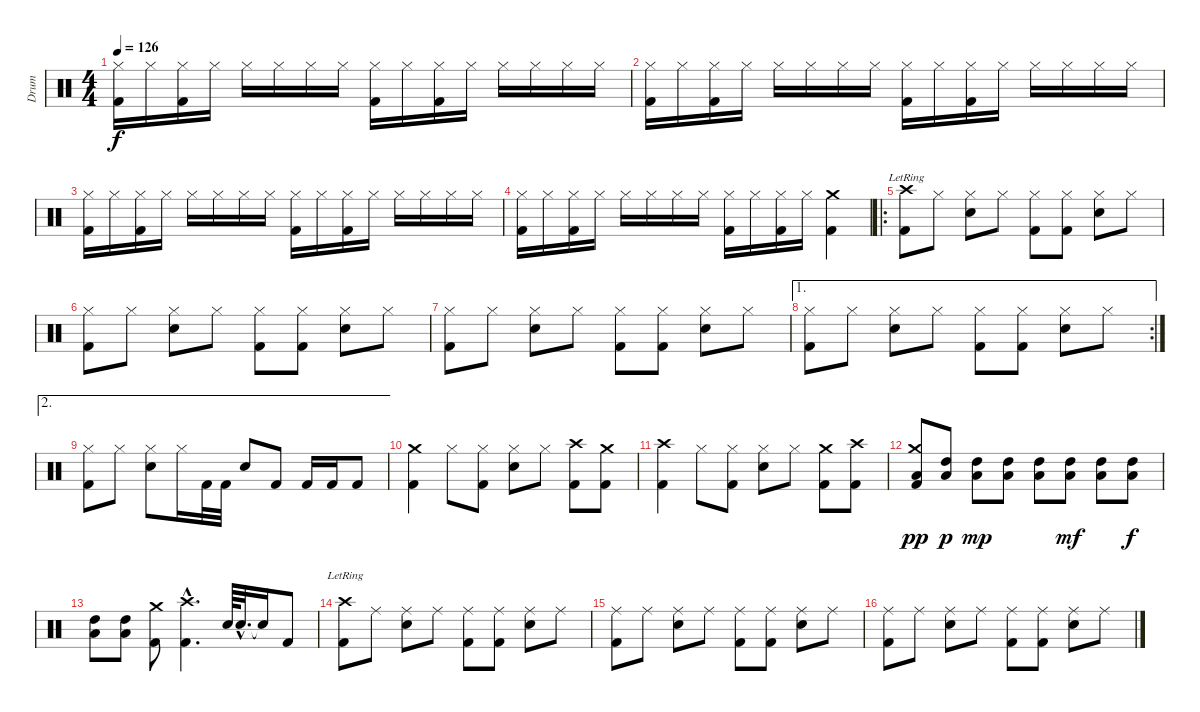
\track ("Drum" "Drum") {instrument percussion}
\staff {score}
\articulation defaults
\ts (4 4)
\tempo 126
\clef neutral
\ks c
("Hi-Hat (closed)" "Kick (hit) 2").16{dy f} "Hi-Hat (closed)".16 ("Hi-Hat (closed)" "Kick (hit) 2").16 "Hi-Hat (closed)".16 "Hi-Hat (closed)".16 "Hi-Hat (closed)".16 "Hi-Hat (closed)".16 "Hi-Hat (closed)".16 ("Hi-Hat (closed)" "Kick (hit) 2").16 "Hi-Hat (closed)".16 ("Hi-Hat (closed)" "Kick (hit) 2").16 "Hi-Hat (closed)".16 "Hi-Hat (closed)".16 "Hi-Hat (closed)".16 "Hi-Hat (closed)".16 "Hi-Hat (closed)".16 |
("Hi-Hat (closed)" "Kick (hit) 2").16 "Hi-Hat (closed)".16 ("Hi-Hat (closed)" "Kick (hit) 2").16 "Hi-Hat (closed)".16 "Hi-Hat (closed)".16 "Hi-Hat (closed)".16 "Hi-Hat (closed)".16 "Hi-Hat (closed)".16 ("Hi-Hat (closed)" "Kick (hit) 2").16 "Hi-Hat (closed)".16 ("Hi-Hat (closed)" "Kick (hit) 2").16 "Hi-Hat (closed)".16 "Hi-Hat (closed)".16 "Hi-Hat (closed)".16 "Hi-Hat (closed)".16 "Hi-Hat (closed)".16 |
("Hi-Hat (closed)" "Kick (hit) 2").16 "Hi-Hat (closed)".16 ("Hi-Hat (closed)" "Kick (hit) 2").16 "Hi-Hat (closed)".16 "Hi-Hat (closed)".16 "Hi-Hat (closed)".16 "Hi-Hat (closed)".16 "Hi-Hat (closed)".16 ("Hi-Hat (closed)" "Kick (hit) 2").16 "Hi-Hat (closed)".16 ("Hi-Hat (closed)" "Kick (hit) 2").16 "Hi-Hat (closed)".16 "Hi-Hat (closed)".16 "Hi-Hat (closed)".16 "Hi-Hat (closed)".16 "Hi-Hat (closed)".16 |
("Hi-Hat (closed)" "Kick (hit) 2").16 "Hi-Hat (closed)".16 ("Hi-Hat (closed)" "Kick (hit) 2").16 "Hi-Hat (closed)".16 "Hi-Hat (closed)".16 "Hi-Hat (closed)".16 "Hi-Hat (closed)".16 "Hi-Hat (closed)".16 ("Hi-Hat (closed)" "Kick (hit) 2").16 "Hi-Hat (closed)".16 ("Hi-Hat (closed)" "Kick (hit) 2").16 "Hi-Hat (closed)".16 ("Crash medium (hit)" "Kick (hit) 2").4 |
\ro
("Crash high (hit)"{lr} "Kick (hit) 2").8 "Hi-Hat (closed)".8 ("Hi-Hat (closed)" "Snare (hit) 2").8 "Hi-Hat (closed)".8 ("Hi-Hat (closed)" "Kick (hit) 2").8 ("Hi-Hat (closed)" "Kick (hit) 2").8 ("Hi-Hat (closed)" "Snare (hit) 2").8 "Hi-Hat (closed)".8 |
("Hi-Hat (closed)" "Kick (hit) 2").8 "Hi-Hat (closed)".8 ("Hi-Hat (closed)" "Snare (hit) 2").8 "Hi-Hat (closed)".8 ("Hi-Hat (closed)" "Kick (hit) 2").8 ("Hi-Hat (closed)" "Kick (hit) 2").8 ("Hi-Hat (closed)" "Snare (hit) 2").8 "Hi-Hat (closed)".8 |
("Hi-Hat (closed)" "Kick (hit) 2").8 "Hi-Hat (closed)".8 ("Hi-Hat (closed)" "Snare (hit) 2").8 "Hi-Hat (closed)".8 ("Hi-Hat (closed)" "Kick (hit) 2").8 ("Hi-Hat (closed)" "Kick (hit) 2").8 ("Hi-Hat (closed)" "Snare (hit) 2").8 "Hi-Hat (closed)".8 |
\ae 1
\rc 2
("Hi-Hat (closed)" "Kick (hit) 2").8 "Hi-Hat (closed)".8 ("Hi-Hat (closed)" "Snare (hit) 2").8 "Hi-Hat (closed)".8 ("Hi-Hat (closed)" "Kick (hit) 2").8 ("Hi-Hat (closed)" "Kick (hit) 2").8 ("Hi-Hat (closed)" "Snare (hit) 2").8 "Hi-Hat (closed)".8 |
\ae 2
("Hi-Hat (closed)" "Kick (hit) 2").8 "Hi-Hat (closed)".8 ("Hi-Hat (closed)" "Snare (hit) 2").8 "Hi-Hat (closed)".16 "Kick (hit) 2".32 "Kick (hit) 2".32 "Snare (hit) 2".8 "Kick (hit) 2".8 "Kick (hit) 2".16 "Kick (hit) 2".16 "Kick (hit) 2".8 |
("Crash medium (hit)" "Kick (hit) 2").4 "Hi-Hat (closed)".8 ("Hi-Hat (closed)" "Kick (hit) 2").8 ("Hi-Hat (closed)" "Snare (hit) 2").8 "Hi-Hat (closed)".8 ("Crash high (hit)" "Kick (hit) 2").8 ("Crash medium (hit)" "Kick (hit) 2").8 |
("Crash high (hit)" "Kick (hit) 2").4 "Hi-Hat (closed)".8 ("Hi-Hat (closed)" "Kick (hit) 2").8 ("Hi-Hat (closed)" "Snare (hit) 2").8 "Hi-Hat (closed)".8 ("Crash medium (hit)" "Kick (hit) 2").8 ("Crash high (hit)" "Kick (hit) 2").8 |
("Crash medium (hit)" "Low Tom (hit)" "Kick (hit) 2").8{dy pp} ("High Tom (hit)" "Low Tom (hit)").8{dy p} ("High Tom (hit)" "Low Tom (hit)").8{dy mp} ("High Tom (hit)" "Low Tom (hit)").8 ("High Tom (hit)" "Low Tom (hit)").8 ("High Tom (hit)" "Low Tom (hit)").8{dy mf} ("High Tom (hit)" "Low Tom (hit)").8 ("High Tom (hit)" "Low Tom (hit)").8{dy f} |
("High Tom (hit)" "Low Tom (hit)").8 ("High Tom (hit)" "Low Tom (hit)").8 ("Crash medium (hit)" "Kick (hit) 2").8 ("Crash high (hit)"{hac} "Kick (hit) 2"{hac}).4{d} "Snare (hit) 2".64 "Snare (hit) 2"{hac}.32{d} "Snare (hit) 2"{t}.16 "Kick (hit) 2".8 |
("Crash high (hit)"{lr} "Kick (hit) 2").8 "Ride (middle)".8 ("Ride (middle)" "Snare (hit) 2").8 "Ride (middle)".8 ("Ride (middle)" "Kick (hit) 2").8 ("Ride (middle)" "Kick (hit) 2").8 ("Ride (middle)" "Snare (hit) 2").8 "Ride (middle)".8 |
("Ride (middle)" "Kick (hit) 2").8 "Ride (middle)".8 ("Ride (middle)" "Snare (hit) 2").8 "Ride (middle)".8 ("Ride (middle)" "Kick (hit) 2").8 ("Ride (middle)" "Kick (hit) 2").8 ("Ride (middle)" "Snare (hit) 2").8 "Ride (middle)".8 |
("Ride (middle)" "Kick (hit) 2").8 "Ride (middle)".8 ("Ride (middle)" "Snare (hit) 2").8 "Ride (middle)".8 ("Ride (middle)" "Kick (hit) 2").8 ("Ride (middle)" "Kick (hit) 2").8 ("Ride (middle)" "Snare (hit) 2").8 "Ride (middle)".8
